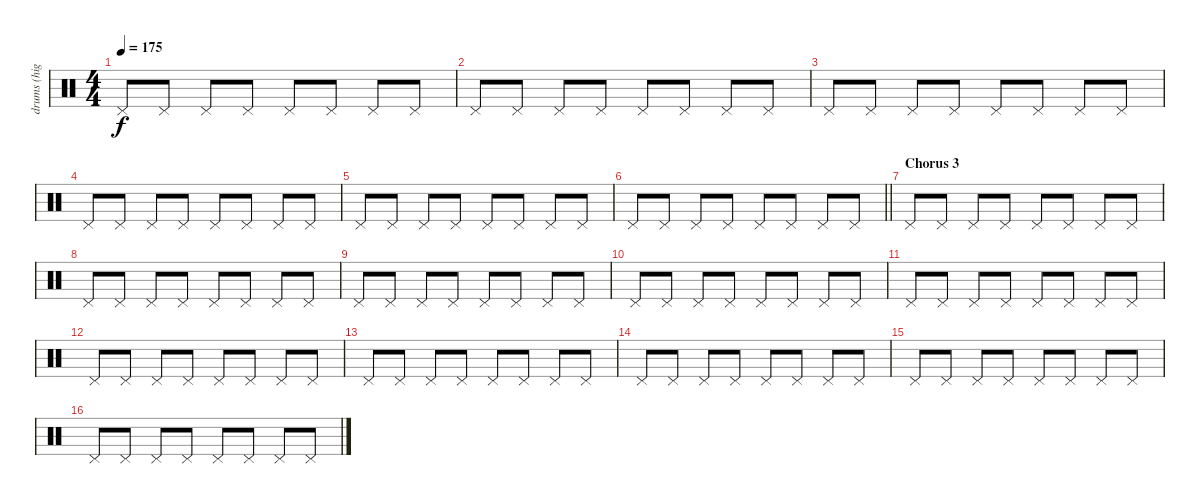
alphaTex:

\track ("drums (highhat)" "drums (hig") {instrument percussion}
\staff {score}
\articulation defaults
\ts (4 4)
\tempo 175
\clef neutral
\ks c "Pedal Hi-Hat (hit)".8{dy f} "Pedal Hi-Hat (hit)".8 "Pedal Hi-Hat (hit)".8 "Pedal Hi-Hat (hit)".8 "Pedal Hi-Hat (hit)".8 "Pedal Hi-Hat (hit)".8 "Pedal Hi-Hat (hit)".8 "Pedal Hi-Hat (hit)".8
|
"Pedal Hi-Hat (hit)".8 "Pedal Hi-Hat (hit)".8 "Pedal Hi-Hat (hit)".8 "Pedal Hi-Hat (hit)".8 "Pedal Hi-Hat (hit)".8 "Pedal Hi-Hat (hit)".8 "Pedal Hi-Hat (hit)".8 "Pedal Hi-Hat (hit)".8 |
"Pedal Hi-Hat (hit)".8 "Pedal Hi-Hat (hit)".8 "Pedal Hi-Hat (hit)".8 "Pedal Hi-Hat (hit)".8 "Pedal Hi-Hat (hit)".8 "Pedal Hi-Hat (hit)".8 "Pedal Hi-Hat (hit)".8 "Pedal Hi-Hat (hit)".8 |
"Pedal Hi-Hat (hit)".8 "Pedal Hi-Hat (hit)".8 "Pedal Hi-Hat (hit)".8 "Pedal Hi-Hat (hit)".8 "Pedal Hi-Hat (hit)".8 "Pedal Hi-Hat (hit)".8 "Pedal Hi-Hat (hit)".8 "Pedal Hi-Hat (hit)".8 |
"Pedal Hi-Hat (hit)".8 "Pedal Hi-Hat (hit)".8 "Pedal Hi-Hat (hit)".8 "Pedal Hi-Hat (hit)".8 "Pedal Hi-Hat (hit)".8 "Pedal Hi-Hat (hit)".8 "Pedal Hi-Hat (hit)".8 "Pedal Hi-Hat (hit)".8 |
\barLineRight lightlight "Pedal Hi-Hat (hit)".8 "Pedal Hi-Hat (hit)".8 "Pedal Hi-Hat (hit)".8 "Pedal Hi-Hat (hit)".8 "Pedal Hi-Hat (hit)".8 "Pedal Hi-Hat (hit)".8 "Pedal Hi-Hat (hit)".8 "Pedal Hi-Hat (hit)".8
|
\section ("" "Chorus 3")
"Pedal Hi-Hat (hit)".8 "Pedal Hi-Hat (hit)".8 "Pedal Hi-Hat (hit)".8 "Pedal Hi-Hat (hit)".8 "Pedal Hi-Hat (hit)".8 "Pedal Hi-Hat (hit)".8 "Pedal Hi-Hat (hit)".8 "Pedal Hi-Hat (hit)".8 |
"Pedal Hi-Hat (hit)".8 "Pedal Hi-Hat (hit)".8 "Pedal Hi-Hat (hit)".8 "Pedal Hi-Hat (hit)".8 "Pedal Hi-Hat (hit)".8 "Pedal Hi-Hat (hit)".8 "Pedal Hi-Hat (hit)".8 "Pedal Hi-Hat (hit)".8 |
"Pedal Hi-Hat (hit)".8 "Pedal Hi-Hat (hit)".8 "Pedal Hi-Hat (hit)".8 "Pedal Hi-Hat (hit)".8 "Pedal Hi-Hat (hit)".8 "Pedal Hi-Hat (hit)".8 "Pedal Hi-Hat (hit)".8 "Pedal Hi-Hat (hit)".8 |
"Pedal Hi-Hat (hit)".8 "Pedal Hi-Hat (hit)".8 "Pedal Hi-Hat (hit)".8 "Pedal Hi-Hat (hit)".8 "Pedal Hi-Hat (hit)".8 "Pedal Hi-Hat (hit)".8 "Pedal Hi-Hat (hit)".8 "Pedal Hi-Hat (hit)".8 |
"Pedal Hi-Hat (hit)".8 "Pedal Hi-Hat (hit)".8 "Pedal Hi-Hat (hit)".8 "Pedal Hi-Hat (hit)".8 "Pedal Hi-Hat (hit)".8 "Pedal Hi-Hat (hit)".8 "Pedal Hi-Hat (hit)".8 "Pedal Hi-Hat (hit)".8 |
"Pedal Hi-Hat (hit)".8 "Pedal Hi-Hat (hit)".8 "Pedal Hi-Hat (hit)".8 "Pedal Hi-Hat (hit)".8 "Pedal Hi-Hat (hit)".8 "Pedal Hi-Hat (hit)".8 "Pedal Hi-Hat (hit)".8 "Pedal Hi-Hat (hit)".8 |
"Pedal Hi-Hat (hit)".8 "Pedal Hi-Hat (hit)".8 "Pedal Hi-Hat (hit)".8 "Pedal Hi-Hat (hit)".8 "Pedal Hi-Hat (hit)".8 "Pedal Hi-Hat (hit)".8 "Pedal Hi-Hat (hit)".8 "Pedal Hi-Hat (hit)".8 |
"Pedal Hi-Hat (hit)".8 "Pedal Hi-Hat (hit)".8 "Pedal Hi-Hat (hit)".8 "Pedal Hi-Hat (hit)".8 "Pedal Hi-Hat (hit)".8 "Pedal Hi-Hat (hit)".8 "Pedal Hi-Hat (hit)".8 "Pedal Hi-Hat (hit)".8 |
"Pedal Hi-Hat (hit)".8 "Pedal Hi-Hat (hit)".8 "Pedal Hi-Hat (hit)".8 "Pedal Hi-Hat (hit)".8 "Pedal Hi-Hat (hit)".8 "Pedal Hi-Hat (hit)".8 "Pedal Hi-Hat (hit)".8 "Pedal Hi-Hat (hit)".8 |
"Pedal Hi-Hat (hit)".8 "Pedal Hi-Hat (hit)".8 "Pedal Hi-Hat (hit)".8 "Pedal Hi-Hat (hit)".8 "Pedal Hi-Hat (hit)".8 "Pedal Hi-Hat (hit)".8 "Pedal Hi-Hat (hit)".8 "Pedal Hi-Hat (hit)".8
